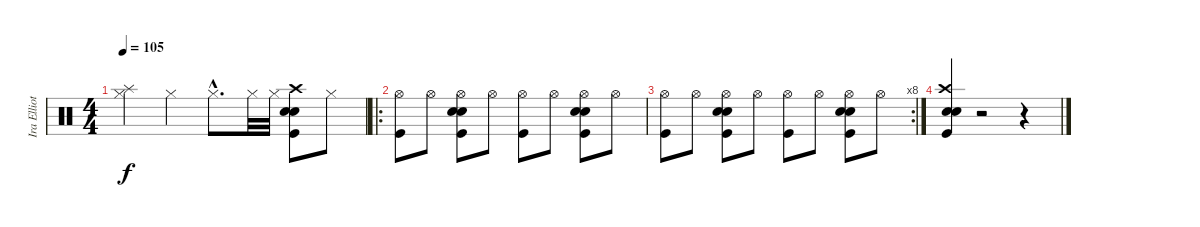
\track ("Ira Elliot" "Ira Elliot") {instrument percussion}
\staff {score}
\articulation defaults
\ts (4 4)
\tempo 105
\clef neutral
\ks c
("Splash (hit)" "Hi-Hat (closed)").4{dy f} "Hi-Hat (closed)".4 "Hi-Hat (closed)"{hac}.8{d} "Hi-Hat (closed)".32 "Hi-Hat (closed)".32 ("Electric Snare (hit)" "Snare (hit) 2" "Crash high (hit)" "Kick (hit)").8 "Hi-Hat (closed)".8 |
\ro
("Hi-Hat (open)" "Kick (hit)").8 "Hi-Hat (open)".8 ("Electric Snare (hit)" "Hi-Hat (open)" "Snare (hit) 2" "Kick (hit)").8 "Hi-Hat (open)".8 ("Hi-Hat (open)" "Kick (hit)").8 "Hi-Hat (open)".8 ("Electric Snare (hit)" "Hi-Hat (open)" "Snare (hit) 2" "Kick (hit)").8 "Hi-Hat (open)".8 |
\rc 8
("Hi-Hat (open)" "Kick (hit)").8 "Hi-Hat (open)".8 ("Electric Snare (hit)" "Hi-Hat (open)" "Snare (hit) 2" "Kick (hit)").8 "Hi-Hat (open)".8 ("Hi-Hat (open)" "Kick (hit)").8 "Hi-Hat (open)".8 ("Electric Snare (hit)" "Hi-Hat (open)" "Snare (hit) 2" "Kick (hit)").8 "Hi-Hat (open)".8 |
("Electric Snare (hit)" "Crash high (hit)" "Kick (hit)" "Snare (hit) 2").4 r.2 r.4
